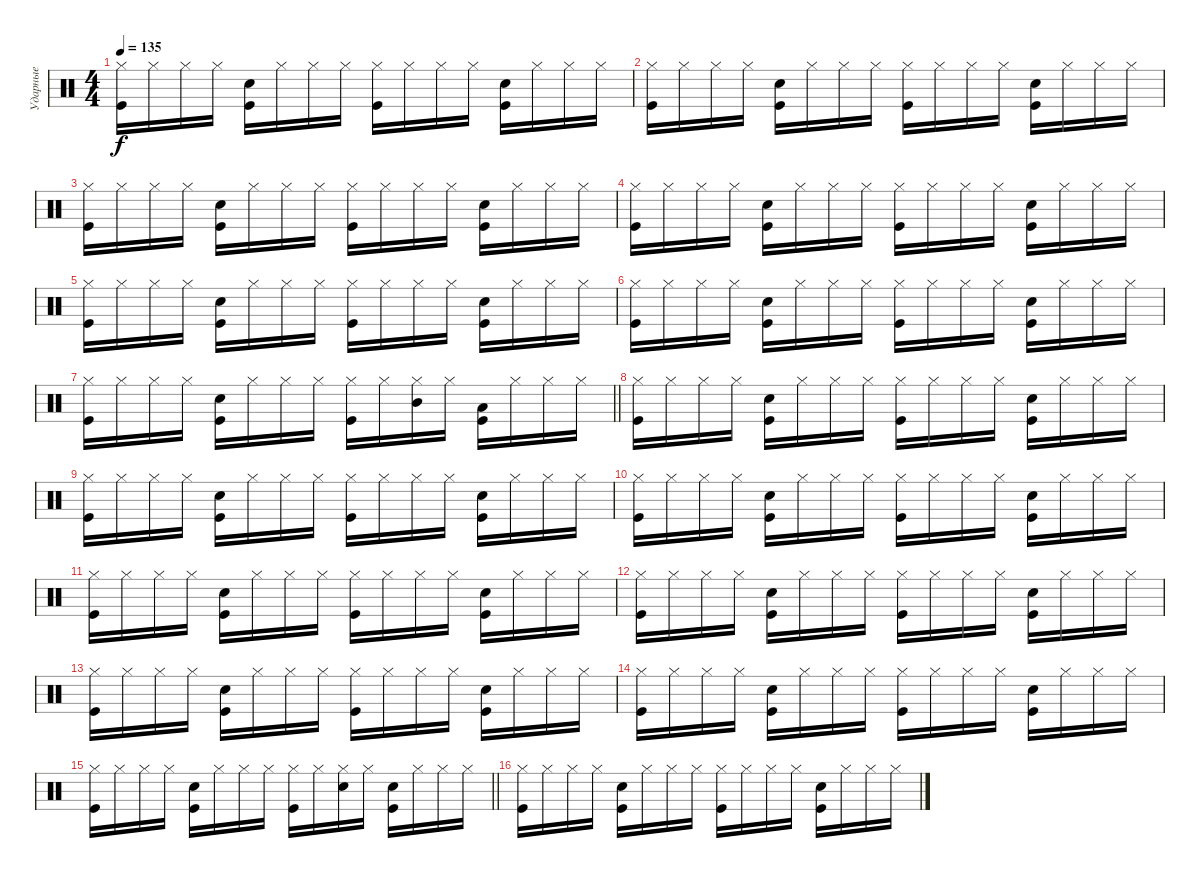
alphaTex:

\track ("Ударные" "Ударные") {instrument percussion}
\staff {score}
\articulation defaults
\ts (4 4)
\tempo 135
\clef neutral
\ks c
("Hi-Hat (closed)" "Kick (hit)").16{dy f} "Hi-Hat (closed)".16 "Hi-Hat (closed)".16 "Hi-Hat (closed)".16 ("Kick (hit)" "Snare (hit) 2").16 "Hi-Hat (closed)".16 "Hi-Hat (closed)".16 "Hi-Hat (closed)".16 ("Hi-Hat (closed)" "Kick (hit)").16 "Hi-Hat (closed)".16 "Hi-Hat (closed)".16 "Hi-Hat (closed)".16 ("Kick (hit)" "Snare (hit) 2").16 "Hi-Hat (closed)".16 "Hi-Hat (closed)".16 "Hi-Hat (closed)".16 |
("Hi-Hat (closed)" "Kick (hit)").16 "Hi-Hat (closed)".16 "Hi-Hat (closed)".16 "Hi-Hat (closed)".16 ("Kick (hit)" "Snare (hit) 2").16 "Hi-Hat (closed)".16 "Hi-Hat (closed)".16 "Hi-Hat (closed)".16 ("Hi-Hat (closed)" "Kick (hit)").16 "Hi-Hat (closed)".16 "Hi-Hat (closed)".16 "Hi-Hat (closed)".16 ("Kick (hit)" "Snare (hit) 2").16 "Hi-Hat (closed)".16 "Hi-Hat (closed)".16 "Hi-Hat (closed)".16 |
("Hi-Hat (closed)" "Kick (hit)").16 "Hi-Hat (closed)".16 "Hi-Hat (closed)".16 "Hi-Hat (closed)".16 ("Kick (hit)" "Snare (hit) 2").16 "Hi-Hat (closed)".16 "Hi-Hat (closed)".16 "Hi-Hat (closed)".16 ("Hi-Hat (closed)" "Kick (hit)").16 "Hi-Hat (closed)".16 "Hi-Hat (closed)".16 "Hi-Hat (closed)".16 ("Kick (hit)" "Snare (hit) 2").16 "Hi-Hat (closed)".16 "Hi-Hat (closed)".16 "Hi-Hat (closed)".16 |
("Hi-Hat (closed)" "Kick (hit)").16 "Hi-Hat (closed)".16 "Hi-Hat (closed)".16 "Hi-Hat (closed)".16 ("Kick (hit)" "Snare (hit) 2").16 "Hi-Hat (closed)".16 "Hi-Hat (closed)".16 "Hi-Hat (closed)".16 ("Hi-Hat (closed)" "Kick (hit)").16 "Hi-Hat (closed)".16 "Hi-Hat (closed)".16 "Hi-Hat (closed)".16 ("Kick (hit)" "Snare (hit) 2").16 "Hi-Hat (closed)".16 "Hi-Hat (closed)".16 "Hi-Hat (closed)".16 |
("Hi-Hat (closed)" "Kick (hit)").16 "Hi-Hat (closed)".16 "Hi-Hat (closed)".16 "Hi-Hat (closed)".16 ("Kick (hit)" "Snare (hit) 2").16 "Hi-Hat (closed)".16 "Hi-Hat (closed)".16 "Hi-Hat (closed)".16 ("Hi-Hat (closed)" "Kick (hit)").16 "Hi-Hat (closed)".16 "Hi-Hat (closed)".16 "Hi-Hat (closed)".16 ("Kick (hit)" "Snare (hit) 2").16 "Hi-Hat (closed)".16 "Hi-Hat (closed)".16 "Hi-Hat (closed)".16 |
("Hi-Hat (closed)" "Kick (hit)").16 "Hi-Hat (closed)".16 "Hi-Hat (closed)".16 "Hi-Hat (closed)".16 ("Kick (hit)" "Snare (hit) 2").16 "Hi-Hat (closed)".16 "Hi-Hat (closed)".16 "Hi-Hat (closed)".16 ("Hi-Hat (closed)" "Kick (hit)").16 "Hi-Hat (closed)".16 "Hi-Hat (closed)".16 "Hi-Hat (closed)".16 ("Kick (hit)" "Snare (hit) 2").16 "Hi-Hat (closed)".16 "Hi-Hat (closed)".16 "Hi-Hat (closed)".16 |
\barLineRight lightlight
("Hi-Hat (closed)" "Kick (hit)").16 "Hi-Hat (closed)".16 "Hi-Hat (closed)".16 "Hi-Hat (closed)".16 ("Kick (hit)" "Snare (hit) 2").16 "Hi-Hat (closed)".16 "Hi-Hat (closed)".16 "Hi-Hat (closed)".16 ("Hi-Hat (closed)" "Kick (hit)").16 "Hi-Hat (closed)".16 ("Hi-Hat (closed)" "Mid Tom (hit)").16 "Hi-Hat (closed)".16 ("Kick (hit)" "Low Tom (hit)").16 "Hi-Hat (closed)".16 "Hi-Hat (closed)".16 "Hi-Hat (closed)".16 |
("Hi-Hat (closed)" "Kick (hit)").16 "Hi-Hat (closed)".16 "Hi-Hat (closed)".16 "Hi-Hat (closed)".16 ("Kick (hit)" "Snare (hit) 2").16 "Hi-Hat (closed)".16 "Hi-Hat (closed)".16 "Hi-Hat (closed)".16 ("Hi-Hat (closed)" "Kick (hit)").16 "Hi-Hat (closed)".16 "Hi-Hat (closed)".16 "Hi-Hat (closed)".16 ("Kick (hit)" "Snare (hit) 2").16 "Hi-Hat (closed)".16 "Hi-Hat (closed)".16 "Hi-Hat (closed)".16 |
("Hi-Hat (closed)" "Kick (hit)").16 "Hi-Hat (closed)".16 "Hi-Hat (closed)".16 "Hi-Hat (closed)".16 ("Kick (hit)" "Snare (hit) 2").16 "Hi-Hat (closed)".16 "Hi-Hat (closed)".16 "Hi-Hat (closed)".16 ("Hi-Hat (closed)" "Kick (hit)").16 "Hi-Hat (closed)".16 "Hi-Hat (closed)".16 "Hi-Hat (closed)".16 ("Kick (hit)" "Snare (hit) 2").16 "Hi-Hat (closed)".16 "Hi-Hat (closed)".16 "Hi-Hat (closed)".16 |
("Hi-Hat (closed)" "Kick (hit)").16 "Hi-Hat (closed)".16 "Hi-Hat (closed)".16 "Hi-Hat (closed)".16 ("Kick (hit)" "Snare (hit) 2").16 "Hi-Hat (closed)".16 "Hi-Hat (closed)".16 "Hi-Hat (closed)".16 ("Hi-Hat (closed)" "Kick (hit)").16 "Hi-Hat (closed)".16 "Hi-Hat (closed)".16 "Hi-Hat (closed)".16 ("Kick (hit)" "Snare (hit) 2").16 "Hi-Hat (closed)".16 "Hi-Hat (closed)".16 "Hi-Hat (closed)".16 |
("Hi-Hat (closed)" "Kick (hit)").16 "Hi-Hat (closed)".16 "Hi-Hat (closed)".16 "Hi-Hat (closed)".16 ("Kick (hit)" "Snare (hit) 2").16 "Hi-Hat (closed)".16 "Hi-Hat (closed)".16 "Hi-Hat (closed)".16 ("Hi-Hat (closed)" "Kick (hit)").16 "Hi-Hat (closed)".16 "Hi-Hat (closed)".16 "Hi-Hat (closed)".16 ("Kick (hit)" "Snare (hit) 2").16 "Hi-Hat (closed)".16 "Hi-Hat (closed)".16 "Hi-Hat (closed)".16 |
("Hi-Hat (closed)" "Kick (hit)").16 "Hi-Hat (closed)".16 "Hi-Hat (closed)".16 "Hi-Hat (closed)".16 ("Kick (hit)" "Snare (hit) 2").16 "Hi-Hat (closed)".16 "Hi-Hat (closed)".16 "Hi-Hat (closed)".16 ("Hi-Hat (closed)" "Kick (hit)").16 "Hi-Hat (closed)".16 "Hi-Hat (closed)".16 "Hi-Hat (closed)".16 ("Kick (hit)" "Snare (hit) 2").16 "Hi-Hat (closed)".16 "Hi-Hat (closed)".16 "Hi-Hat (closed)".16 |
("Hi-Hat (closed)" "Kick (hit)").16 "Hi-Hat (closed)".16 "Hi-Hat (closed)".16 "Hi-Hat (closed)".16 ("Kick (hit)" "Snare (hit) 2").16 "Hi-Hat (closed)".16 "Hi-Hat (closed)".16 "Hi-Hat (closed)".16 ("Hi-Hat (closed)" "Kick (hit)").16 "Hi-Hat (closed)".16 "Hi-Hat (closed)".16 "Hi-Hat (closed)".16 ("Kick (hit)" "Snare (hit) 2").16 "Hi-Hat (closed)".16 "Hi-Hat (closed)".16 "Hi-Hat (closed)".16 |
("Hi-Hat (closed)" "Kick (hit)").16 "Hi-Hat (closed)".16 "Hi-Hat (closed)".16 "Hi-Hat (closed)".16 ("Kick (hit)" "Snare (hit) 2").16 "Hi-Hat (closed)".16 "Hi-Hat (closed)".16 "Hi-Hat (closed)".16 ("Hi-Hat (closed)" "Kick (hit)").16 "Hi-Hat (closed)".16 "Hi-Hat (closed)".16 "Hi-Hat (closed)".16 ("Kick (hit)" "Snare (hit) 2").16 "Hi-Hat (closed)".16 "Hi-Hat (closed)".16 "Hi-Hat (closed)".16 |
\barLineRight lightlight
("Hi-Hat (closed)" "Kick (hit)").16 "Hi-Hat (closed)".16 "Hi-Hat (closed)".16 "Hi-Hat (closed)".16 ("Kick (hit)" "Snare (hit) 2").16 "Hi-Hat (closed)".16 "Hi-Hat (closed)".16 "Hi-Hat (closed)".16 ("Hi-Hat (closed)" "Kick (hit)").16 "Hi-Hat (closed)".16 ("Hi-Hat (closed)" "Snare (hit) 2").16 "Hi-Hat (closed)".16 ("Kick (hit)" "Snare (hit) 2").16 "Hi-Hat (closed)".16 "Hi-Hat (closed)".16 "Hi-Hat (closed)".16 |
("Hi-Hat (closed)" "Kick (hit)").16 "Hi-Hat (closed)".16 "Hi-Hat (closed)".16 "Hi-Hat (closed)".16 ("Kick (hit)" "Snare (hit) 2").16 "Hi-Hat (closed)".16 "Hi-Hat (closed)".16 "Hi-Hat (closed)".16 ("Hi-Hat (closed)" "Kick (hit)").16 "Hi-Hat (closed)".16 "Hi-Hat (closed)".16 "Hi-Hat (closed)".16 ("Kick (hit)" "Snare (hit) 2").16 "Hi-Hat (closed)".16 "Hi-Hat (closed)".16 "Hi-Hat (closed)".16
